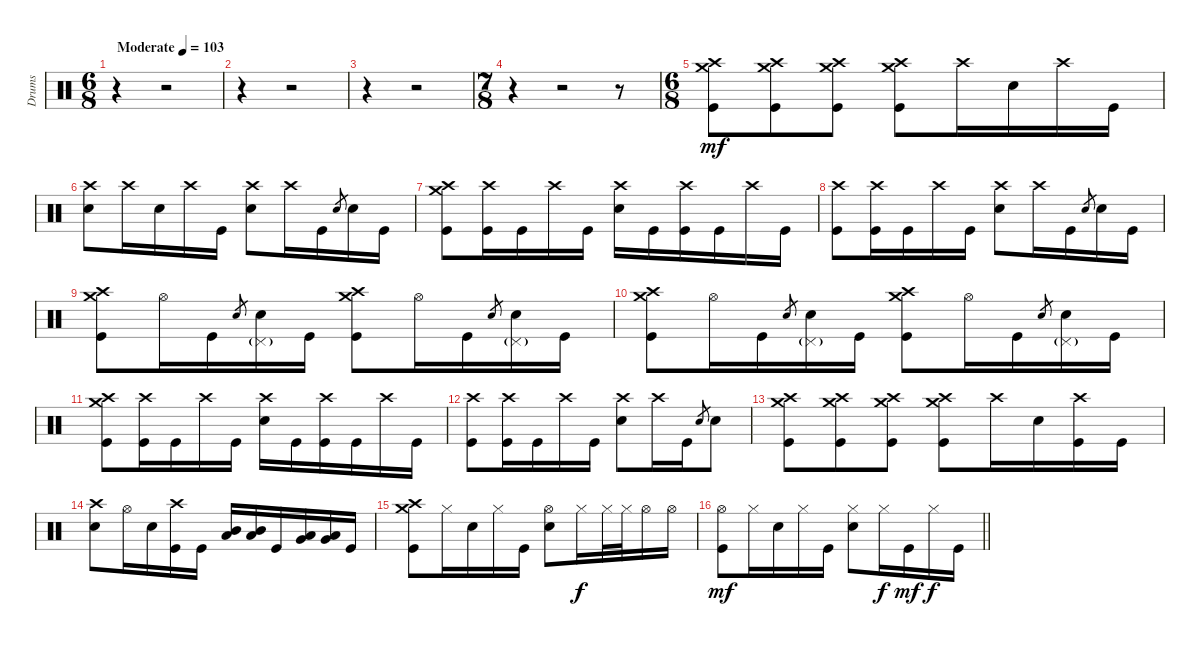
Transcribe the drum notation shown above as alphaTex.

\track ("Drums" "Drums") {instrument percussion}
\staff {score}
\articulation defaults
\ts (6 8)
\tempo (103 "Moderate")
\clef neutral
\ks c
r.4{dy mf} r.2 |
r.4 r.2 |
r.4 r.2 |
\ts (7 8)
r.4 r.2 r.8 |
\ts (6 8)
("Crash medium (hit)" "Crash high (hit)" "Kick (hit)").8 ("Crash medium (hit)" "Crash high (hit)" "Kick (hit)").8 ("Crash medium (hit)" "Crash high (hit)" "Kick (hit)").8 ("Crash medium (hit)" "Crash high (hit)" "Kick (hit)").8 "Crash high (hit)".16 "Snare (hit) 2".16 "Crash high (hit)".16 "Kick (hit)".16 |
("Crash high (hit)" "Snare (hit) 2").8 "Crash high (hit)".16 "Snare (hit) 2".16 "Crash high (hit)".16 "Kick (hit)".16 ("Crash high (hit)" "Snare (hit) 2").8 "Crash high (hit)".16 "Kick (hit)".16 "Snare (hit) 2".8{gr} "Snare (hit) 2".16 "Kick (hit)".16 |
("Crash medium (hit)" "Crash high (hit)" "Kick (hit)").8 ("Crash high (hit)" "Kick (hit)").16 "Kick (hit)".16 "Crash high (hit)".16 "Kick (hit)".16 ("Crash high (hit)" "Snare (hit) 2").16 "Kick (hit)".16 ("Crash high (hit)" "Kick (hit)").16 "Kick (hit)".16 "Crash high (hit)".16 "Kick (hit)".16 |
("Crash high (hit)" "Kick (hit)").8 ("Crash high (hit)" "Kick (hit)").16 "Kick (hit)".16 "Crash high (hit)".16 "Kick (hit)".16 ("Crash high (hit)" "Snare (hit) 2").8 "Crash high (hit)".16 "Kick (hit)".16 "Snare (hit) 2".8{gr} "Snare (hit) 2".16 "Kick (hit)".16 |
("Crash medium (hit)" "Crash high (hit)" "Kick (hit)").8 "Hi-Hat (open)".16 "Kick (hit)".16 "Snare (hit) 2".8{gr} ("Pedal Hi-Hat (hit)"{g} "Snare (hit) 2").16 "Kick (hit)".16 ("Crash medium (hit)" "Crash high (hit)" "Kick (hit)").8 "Hi-Hat (open)".16 "Kick (hit)".16 "Snare (hit) 2".8{gr} ("Pedal Hi-Hat (hit)"{g} "Snare (hit) 2").16 "Kick (hit)".16 |
("Crash medium (hit)" "Crash high (hit)" "Kick (hit)").8 "Hi-Hat (open)".16 "Kick (hit)".16 "Snare (hit) 2".8{gr} ("Pedal Hi-Hat (hit)"{g} "Snare (hit) 2").16 "Kick (hit)".16 ("Crash medium (hit)" "Crash high (hit)" "Kick (hit)").8 "Hi-Hat (open)".16 "Kick (hit)".16 "Snare (hit) 2".8{gr} ("Pedal Hi-Hat (hit)"{g} "Snare (hit) 2").16 "Kick (hit)".16 |
("Crash medium (hit)" "Crash high (hit)" "Kick (hit)").8 ("Crash high (hit)" "Kick (hit)").16 "Kick (hit)".16 "Crash high (hit)".16 "Kick (hit)".16 ("Crash high (hit)" "Snare (hit) 2").16 "Kick (hit)".16 ("Crash high (hit)" "Kick (hit)").16 "Kick (hit)".16 "Crash high (hit)".16 "Kick (hit)".16 |
("Crash high (hit)" "Kick (hit)").8 ("Crash high (hit)" "Kick (hit)").16 "Kick (hit)".16 "Crash high (hit)".16 "Kick (hit)".16 ("Crash high (hit)" "Snare (hit) 2").8 "Crash high (hit)".16 "Kick (hit)".16 "Snare (hit) 2".8{gr} "Snare (hit) 2".8 |
("Crash medium (hit)" "Crash high (hit)" "Kick (hit)").8 ("Crash medium (hit)" "Crash high (hit)" "Kick (hit)").8 ("Crash medium (hit)" "Crash high (hit)" "Kick (hit)").8 ("Crash medium (hit)" "Crash high (hit)" "Kick (hit)").8 "Crash high (hit)".16 "Snare (hit) 2".16 ("Crash high (hit)" "Kick (hit)").16 "Kick (hit)".16 |
("Crash high (hit)" "Snare (hit) 2").8 "Hi-Hat (open)".16 "Snare (hit) 2".16 ("Crash high (hit)" "Kick (hit)").16 "Kick (hit)".16 ("Mid Tom (hit)" "Low Tom (hit)").16 ("Mid Tom (hit)" "Low Tom (hit)").16 "Kick (hit)".16 ("Low Tom (hit)" "Very Low Tom (hit)").16 ("Low Tom (hit)" "Very Low Tom (hit)").16 "Kick (hit)".16 |
("Crash medium (hit)" "Crash high (hit)" "Kick (hit)").8 "Hi-Hat (closed)".16 "Snare (hit) 2".16 "Hi-Hat (closed)".16 "Kick (hit)".16 ("Hi-Hat (open)" "Snare (hit) 2").8 "Hi-Hat (closed)".16{dy f} "Hi-Hat (closed)".32 "Hi-Hat (closed)".32 "Hi-Hat (open)".16 "Hi-Hat (open)".16 |
\barLineRight lightlight
("Hi-Hat (open)" "Kick (hit)").8{dy mf} "Hi-Hat (closed)".16 "Snare (hit) 2".16 "Hi-Hat (closed)".16 "Kick (hit)".16 ("Hi-Hat (closed)" "Snare (hit) 2").8 "Hi-Hat (closed)".16{dy f} "Kick (hit)".16{dy mf} "Hi-Hat (closed)".16{dy f} "Kick (hit)".16
